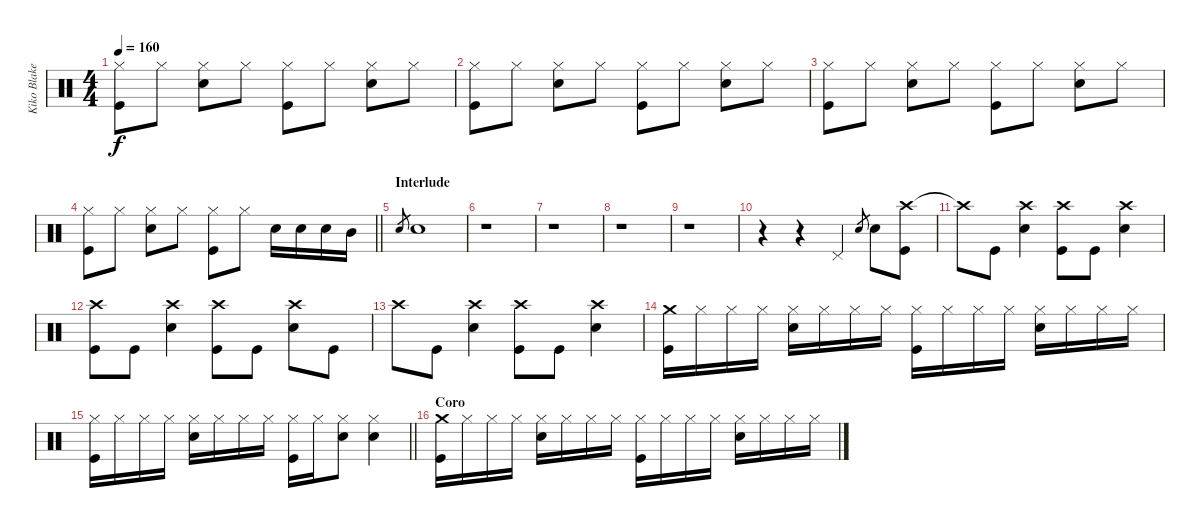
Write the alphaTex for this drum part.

\track ("Kiko Blake" "Kiko Blake") {instrument percussion}
\staff {score}
\articulation defaults
\ts (4 4)
\tempo 160
\clef neutral
\ks c
("Hi-Hat (closed)" "Kick (hit)").8{dy f} "Hi-Hat (closed)".8 ("Hi-Hat (closed)" "Snare (hit) 2").8 "Hi-Hat (closed)".8 ("Hi-Hat (closed)" "Kick (hit)").8 "Hi-Hat (closed)".8 ("Hi-Hat (closed)" "Snare (hit) 2").8 "Hi-Hat (closed)".8 |
("Hi-Hat (closed)" "Kick (hit)").8 "Hi-Hat (closed)".8 ("Hi-Hat (closed)" "Snare (hit) 2").8 "Hi-Hat (closed)".8 ("Hi-Hat (closed)" "Kick (hit)").8 "Hi-Hat (closed)".8 ("Hi-Hat (closed)" "Snare (hit) 2").8 "Hi-Hat (closed)".8 |
("Hi-Hat (closed)" "Kick (hit)").8 "Hi-Hat (closed)".8 ("Hi-Hat (closed)" "Snare (hit) 2").8 "Hi-Hat (closed)".8 ("Hi-Hat (closed)" "Kick (hit)").8 "Hi-Hat (closed)".8 ("Hi-Hat (closed)" "Snare (hit) 2").8 "Hi-Hat (closed)".8 |
\barLineRight lightlight
("Hi-Hat (closed)" "Kick (hit)").8 "Hi-Hat (closed)".8 ("Hi-Hat (closed)" "Snare (hit) 2").8 "Hi-Hat (closed)".8 ("Hi-Hat (closed)" "Kick (hit)").8 "Hi-Hat (closed)".8 "Snare (hit) 2".16 "Snare (hit) 2".16 "Snare (hit) 2".16 "Mid Tom (hit)".16 |
\section ("" "Interlude")
"Snare (hit) 2".8{gr} "Snare (hit) 2".1 |
r.1 |
r.1 |
r.1 |
r.1 |
r.4 r.4 "Pedal Hi-Hat (hit)".4 "Snare (hit) 2".8{gr} "Snare (hit) 2".8 ("Crash high (hit)" "Kick (hit)").8 |
"Crash high (hit)"{t}.8 "Kick (hit)".8 ("Crash high (hit)" "Snare (hit) 2").4 ("Crash high (hit)" "Kick (hit)").8 "Kick (hit)".8 ("Crash high (hit)" "Snare (hit) 2").4 |
("Crash high (hit)" "Kick (hit)").8 "Kick (hit)".8 ("Crash high (hit)" "Snare (hit) 2").4 ("Crash high (hit)" "Kick (hit)").8 "Kick (hit)".8 ("Crash high (hit)" "Snare (hit) 2").8 "Kick (hit)".8 |
"Crash high (hit)".8 "Kick (hit)".8 ("Crash high (hit)" "Snare (hit) 2").4 ("Crash high (hit)" "Kick (hit)").8 "Kick (hit)".8 ("Crash high (hit)" "Snare (hit) 2").4 |
("Crash medium (hit)" "Kick (hit)").16 "Hi-Hat (closed)".16 "Hi-Hat (closed)".16 "Hi-Hat (closed)".16 ("Hi-Hat (closed)" "Snare (hit) 2").16 "Hi-Hat (closed)".16 "Hi-Hat (closed)".16 "Hi-Hat (closed)".16 ("Hi-Hat (closed)" "Kick (hit)").16 "Hi-Hat (closed)".16 "Hi-Hat (closed)".16 "Hi-Hat (closed)".16 ("Hi-Hat (closed)" "Snare (hit) 2").16 "Hi-Hat (closed)".16 "Hi-Hat (closed)".16 "Hi-Hat (closed)".16 |
\barLineRight lightlight
("Hi-Hat (closed)" "Kick (hit)").16 "Hi-Hat (closed)".16 "Hi-Hat (closed)".16 "Hi-Hat (closed)".16 ("Hi-Hat (closed)" "Snare (hit) 2").16 "Hi-Hat (closed)".16 "Hi-Hat (closed)".16 "Hi-Hat (closed)".16 ("Hi-Hat (closed)" "Kick (hit)").16 "Hi-Hat (closed)".16 ("Hi-Hat (closed)" "Snare (hit) 2").8 ("Hi-Hat (closed)" "Snare (hit) 2").4 |
\section ("" "Coro")
("Crash medium (hit)" "Kick (hit)").16 "Hi-Hat (closed)".16 "Hi-Hat (closed)".16 "Hi-Hat (closed)".16 ("Hi-Hat (closed)" "Snare (hit) 2").16 "Hi-Hat (closed)".16 "Hi-Hat (closed)".16 "Hi-Hat (closed)".16 ("Hi-Hat (closed)" "Kick (hit)").16 "Hi-Hat (closed)".16 "Hi-Hat (closed)".16 "Hi-Hat (closed)".16 ("Hi-Hat (closed)" "Snare (hit) 2").16 "Hi-Hat (closed)".16 "Hi-Hat (closed)".16 "Hi-Hat (closed)".16
